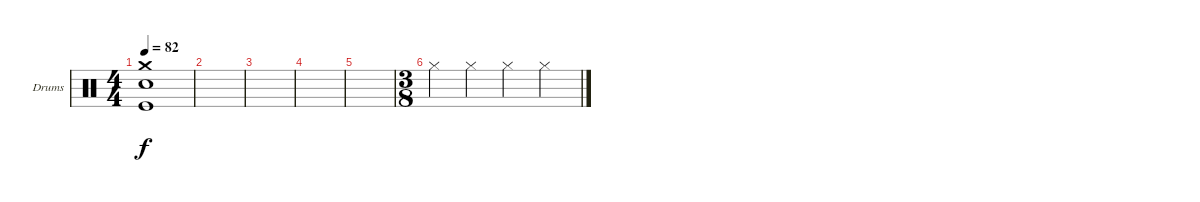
\bracketExtendMode groupsimilarinstruments
\firstSystemTrackNameOrientation horizontal
\otherSystemsTrackNameOrientation horizontal
\track ("Drumkit" "Drums") {instrument percussion}
\staff {score}
\articulation defaults
\ts (4 4)
\tempo 82
\clef neutral
\ks c
("Crash medium (hit)" "Kick (hit)" "Snare (hit) 2").1{dy f} |
|
|
|
|
\ts (3 8)
"Hi-Hat (closed)".4 "Hi-Hat (closed)".4 "Hi-Hat (closed)".4 "Hi-Hat (closed)".4
